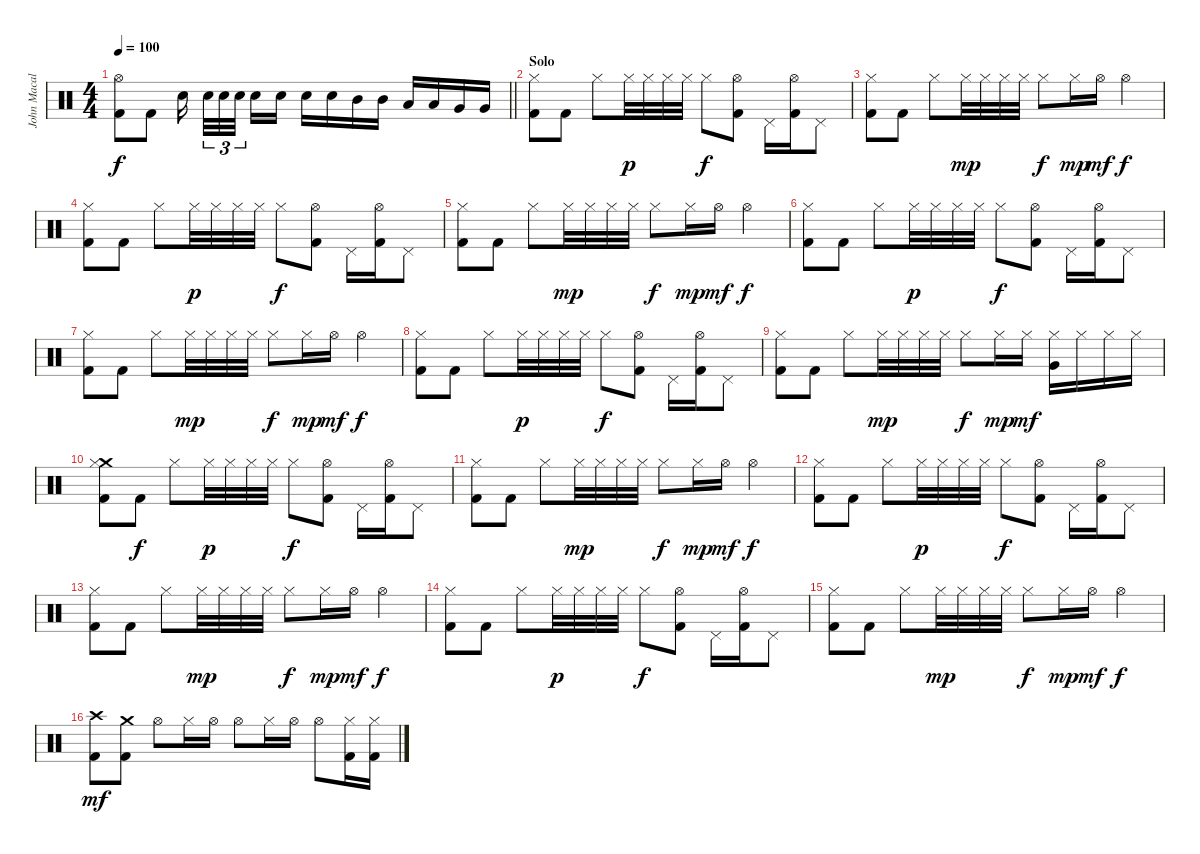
\track ("John Macaluso" "John Macal") {instrument percussion}
\staff {score}
\articulation defaults
\ts (4 4)
\tempo 100
\clef neutral
\barLineRight lightlight
\ks c
("Hi-Hat (open)" "Kick (hit) 2").8{dy f} "Kick (hit) 2".8 "Snare (hit) 2".16{beam splitsecondary} "Snare (hit) 2".32{tu (3 2)} "Snare (hit) 2".32{tu (3 2)} "Snare (hit) 2".32{tu (3 2) beam splitsecondary} "Snare (hit) 2".16 "Snare (hit) 2".16 "Snare (hit) 2".16 "Snare (hit) 2".16 "Mid Tom (hit)".16 "Mid Tom (hit)".16 "Low Tom (hit)".16 "Low Tom (hit)".16 "Very Low Tom (hit)".16 "Very Low Tom (hit)".16 |
\section ("" "Solo")
("Hi-Hat (closed)" "Kick (hit) 2").8 "Kick (hit) 2".8 "Hi-Hat (closed)".8 "Hi-Hat (closed)".32{dy p} "Hi-Hat (closed)".32 "Hi-Hat (closed)".32 "Hi-Hat (closed)".32 "Hi-Hat (closed)".8{dy f} ("Hi-Hat (open)" "Kick (hit) 2").8 "Pedal Hi-Hat (hit)".16 ("Hi-Hat (open)" "Kick (hit) 2").16 "Pedal Hi-Hat (hit)".8 |
("Hi-Hat (closed)" "Kick (hit) 2").8 "Kick (hit) 2".8 "Hi-Hat (closed)".8 "Hi-Hat (closed)".32{dy mp} "Hi-Hat (closed)".32 "Hi-Hat (closed)".32 "Hi-Hat (closed)".32 "Hi-Hat (closed)".8{dy f} "Hi-Hat (closed)".16{dy mp} "Hi-Hat (open)".16{dy mf} "Hi-Hat (open)".4{dy f} |
("Hi-Hat (closed)" "Kick (hit) 2").8 "Kick (hit) 2".8 "Hi-Hat (closed)".8 "Hi-Hat (closed)".32{dy p} "Hi-Hat (closed)".32 "Hi-Hat (closed)".32 "Hi-Hat (closed)".32 "Hi-Hat (closed)".8{dy f} ("Hi-Hat (open)" "Kick (hit) 2").8 "Pedal Hi-Hat (hit)".16 ("Hi-Hat (open)" "Kick (hit) 2").16 "Pedal Hi-Hat (hit)".8 |
("Hi-Hat (closed)" "Kick (hit) 2").8 "Kick (hit) 2".8 "Hi-Hat (closed)".8 "Hi-Hat (closed)".32{dy mp} "Hi-Hat (closed)".32 "Hi-Hat (closed)".32 "Hi-Hat (closed)".32 "Hi-Hat (closed)".8{dy f} "Hi-Hat (closed)".16{dy mp} "Hi-Hat (open)".16{dy mf} "Hi-Hat (open)".4{dy f} |
("Hi-Hat (closed)" "Kick (hit) 2").8 "Kick (hit) 2".8 "Hi-Hat (closed)".8 "Hi-Hat (closed)".32{dy p} "Hi-Hat (closed)".32 "Hi-Hat (closed)".32 "Hi-Hat (closed)".32 "Hi-Hat (closed)".8{dy f} ("Hi-Hat (open)" "Kick (hit) 2").8 "Pedal Hi-Hat (hit)".16 ("Hi-Hat (open)" "Kick (hit) 2").16 "Pedal Hi-Hat (hit)".8 |
("Hi-Hat (closed)" "Kick (hit) 2").8 "Kick (hit) 2".8 "Hi-Hat (closed)".8 "Hi-Hat (closed)".32{dy mp} "Hi-Hat (closed)".32 "Hi-Hat (closed)".32 "Hi-Hat (closed)".32 "Hi-Hat (closed)".8{dy f} "Hi-Hat (closed)".16{dy mp} "Hi-Hat (open)".16{dy mf} "Hi-Hat (open)".4{dy f} |
("Hi-Hat (closed)" "Kick (hit) 2").8 "Kick (hit) 2".8 "Hi-Hat (closed)".8 "Hi-Hat (closed)".32{dy p} "Hi-Hat (closed)".32 "Hi-Hat (closed)".32 "Hi-Hat (closed)".32 "Hi-Hat (closed)".8{dy f} ("Hi-Hat (open)" "Kick (hit) 2").8 "Pedal Hi-Hat (hit)".16 ("Hi-Hat (open)" "Kick (hit) 2").16 "Pedal Hi-Hat (hit)".8 |
("Hi-Hat (closed)" "Kick (hit) 2").8 "Kick (hit) 2".8 "Hi-Hat (closed)".8 "Hi-Hat (closed)".32{dy mp} "Hi-Hat (closed)".32 "Hi-Hat (closed)".32 "Hi-Hat (closed)".32 "Hi-Hat (closed)".8{dy f} "Hi-Hat (closed)".16{dy mp} "Hi-Hat (closed)".16{dy mf} ("Hi-Hat (closed)" "Very Low Tom (hit)").16 "Hi-Hat (closed)".16 "Hi-Hat (closed)".16 "Hi-Hat (closed)".16 |
("Crash medium (hit)" "Hi-Hat (closed)" "Kick (hit) 2").8 "Kick (hit) 2".8{dy f} "Hi-Hat (closed)".8 "Hi-Hat (closed)".32{dy p} "Hi-Hat (closed)".32 "Hi-Hat (closed)".32 "Hi-Hat (closed)".32 "Hi-Hat (closed)".8{dy f} ("Hi-Hat (open)" "Kick (hit) 2").8 "Pedal Hi-Hat (hit)".16 ("Hi-Hat (open)" "Kick (hit) 2").16 "Pedal Hi-Hat (hit)".8 |
("Hi-Hat (closed)" "Kick (hit) 2").8 "Kick (hit) 2".8 "Hi-Hat (closed)".8 "Hi-Hat (closed)".32{dy mp} "Hi-Hat (closed)".32 "Hi-Hat (closed)".32 "Hi-Hat (closed)".32 "Hi-Hat (closed)".8{dy f} "Hi-Hat (closed)".16{dy mp} "Hi-Hat (open)".16{dy mf} "Hi-Hat (open)".4{dy f} |
("Hi-Hat (closed)" "Kick (hit) 2").8 "Kick (hit) 2".8 "Hi-Hat (closed)".8 "Hi-Hat (closed)".32{dy p} "Hi-Hat (closed)".32 "Hi-Hat (closed)".32 "Hi-Hat (closed)".32 "Hi-Hat (closed)".8{dy f} ("Hi-Hat (open)" "Kick (hit) 2").8 "Pedal Hi-Hat (hit)".16 ("Hi-Hat (open)" "Kick (hit) 2").16 "Pedal Hi-Hat (hit)".8 |
("Hi-Hat (closed)" "Kick (hit) 2").8 "Kick (hit) 2".8 "Hi-Hat (closed)".8 "Hi-Hat (closed)".32{dy mp} "Hi-Hat (closed)".32 "Hi-Hat (closed)".32 "Hi-Hat (closed)".32 "Hi-Hat (closed)".8{dy f} "Hi-Hat (closed)".16{dy mp} "Hi-Hat (open)".16{dy mf} "Hi-Hat (open)".4{dy f} |
("Hi-Hat (closed)" "Kick (hit) 2").8 "Kick (hit) 2".8 "Hi-Hat (closed)".8 "Hi-Hat (closed)".32{dy p} "Hi-Hat (closed)".32 "Hi-Hat (closed)".32 "Hi-Hat (closed)".32 "Hi-Hat (closed)".8{dy f} ("Hi-Hat (open)" "Kick (hit) 2").8 "Pedal Hi-Hat (hit)".16 ("Hi-Hat (open)" "Kick (hit) 2").16 "Pedal Hi-Hat (hit)".8 |
("Hi-Hat (closed)" "Kick (hit) 2").8 "Kick (hit) 2".8 "Hi-Hat (closed)".8 "Hi-Hat (closed)".32{dy mp} "Hi-Hat (closed)".32 "Hi-Hat (closed)".32 "Hi-Hat (closed)".32 "Hi-Hat (closed)".8{dy f} "Hi-Hat (closed)".16{dy mp} "Hi-Hat (open)".16{dy mf} "Hi-Hat (open)".4{dy f} |
("Crash high (hit)" "Kick (hit) 2").8{dy mf} ("Crash medium (hit)" "Kick (hit) 2").8 "Hi-Hat (open)".8 "Hi-Hat (closed)".16 "Hi-Hat (open)".16 "Hi-Hat (open)".8 "Hi-Hat (closed)".16 "Hi-Hat (open)".16 "Hi-Hat (open)".8 ("Hi-Hat (closed)" "Kick (hit) 2").16 ("Hi-Hat (closed)" "Kick (hit) 2").16
